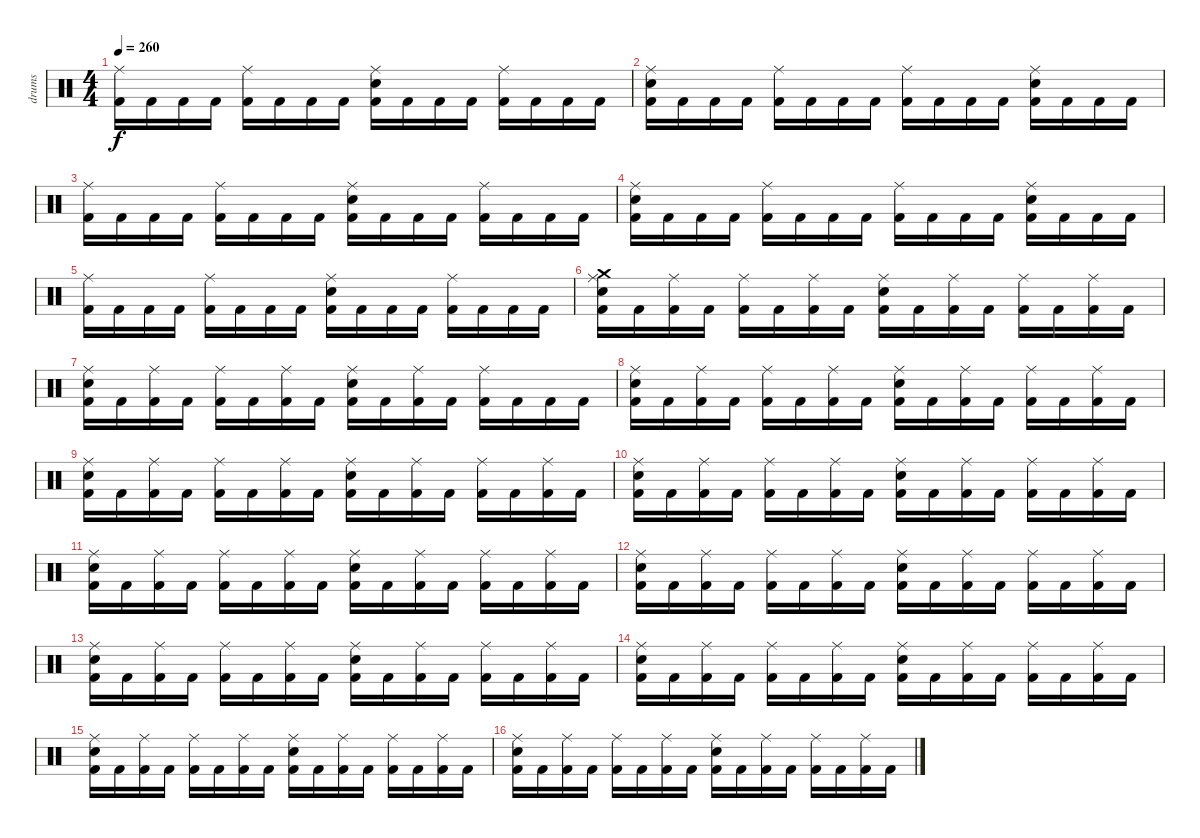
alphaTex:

\track ("drums" "drums") {instrument percussion}
\staff {score}
\articulation defaults
\ts (4 4)
\tempo 260
\clef neutral
\ks c
("Ride (middle)" "Kick (hit) 2").16{dy f} "Kick (hit) 2".16 "Kick (hit) 2".16 "Kick (hit) 2".16 ("Ride (middle)" "Kick (hit) 2").16 "Kick (hit) 2".16 "Kick (hit) 2".16 "Kick (hit) 2".16 ("Ride (middle)" "Electric Snare (hit)" "Kick (hit) 2").16 "Kick (hit) 2".16 "Kick (hit) 2".16 "Kick (hit) 2".16 ("Ride (middle)" "Kick (hit) 2").16 "Kick (hit) 2".16 "Kick (hit) 2".16 "Kick (hit) 2".16 |
("Ride (middle)" "Electric Snare (hit)" "Kick (hit) 2").16 "Kick (hit) 2".16 "Kick (hit) 2".16 "Kick (hit) 2".16 ("Ride (middle)" "Kick (hit) 2").16 "Kick (hit) 2".16 "Kick (hit) 2".16 "Kick (hit) 2".16 ("Ride (middle)" "Kick (hit) 2").16 "Kick (hit) 2".16 "Kick (hit) 2".16 "Kick (hit) 2".16 ("Ride (middle)" "Electric Snare (hit)" "Kick (hit) 2").16 "Kick (hit) 2".16 "Kick (hit) 2".16 "Kick (hit) 2".16 |
("Ride (middle)" "Kick (hit) 2").16 "Kick (hit) 2".16 "Kick (hit) 2".16 "Kick (hit) 2".16 ("Ride (middle)" "Kick (hit) 2").16 "Kick (hit) 2".16 "Kick (hit) 2".16 "Kick (hit) 2".16 ("Ride (middle)" "Electric Snare (hit)" "Kick (hit) 2").16 "Kick (hit) 2".16 "Kick (hit) 2".16 "Kick (hit) 2".16 ("Ride (middle)" "Kick (hit) 2").16 "Kick (hit) 2".16 "Kick (hit) 2".16 "Kick (hit) 2".16 |
("Ride (middle)" "Electric Snare (hit)" "Kick (hit) 2").16 "Kick (hit) 2".16 "Kick (hit) 2".16 "Kick (hit) 2".16 ("Ride (middle)" "Kick (hit) 2").16 "Kick (hit) 2".16 "Kick (hit) 2".16 "Kick (hit) 2".16 ("Ride (middle)" "Kick (hit) 2").16 "Kick (hit) 2".16 "Kick (hit) 2".16 "Kick (hit) 2".16 ("Ride (middle)" "Electric Snare (hit)" "Kick (hit) 2").16 "Kick (hit) 2".16 "Kick (hit) 2".16 "Kick (hit) 2".16 |
("Ride (middle)" "Kick (hit) 2").16 "Kick (hit) 2".16 "Kick (hit) 2".16 "Kick (hit) 2".16 ("Ride (middle)" "Kick (hit) 2").16 "Kick (hit) 2".16 "Kick (hit) 2".16 "Kick (hit) 2".16 ("Ride (middle)" "Electric Snare (hit)" "Kick (hit) 2").16 "Kick (hit) 2".16 "Kick (hit) 2".16 "Kick (hit) 2".16 ("Ride (middle)" "Kick (hit) 2").16 "Kick (hit) 2".16 "Kick (hit) 2".16 "Kick (hit) 2".16 |
("Crash medium (hit)" "Ride (middle)" "Electric Snare (hit)" "Kick (hit) 2").16 "Kick (hit) 2".16 ("Ride (middle)" "Kick (hit) 2").16 "Kick (hit) 2".16 ("Ride (middle)" "Kick (hit) 2").16 "Kick (hit) 2".16 ("Ride (middle)" "Kick (hit) 2").16 "Kick (hit) 2".16 ("Ride (middle)" "Electric Snare (hit)" "Kick (hit) 2").16 "Kick (hit) 2".16 ("Ride (middle)" "Kick (hit) 2").16 "Kick (hit) 2".16 ("Ride (middle)" "Kick (hit) 2").16 "Kick (hit) 2".16 ("Ride (middle)" "Kick (hit) 2").16 "Kick (hit) 2".16 |
("Ride (middle)" "Electric Snare (hit)" "Kick (hit) 2").16 "Kick (hit) 2".16 ("Ride (middle)" "Kick (hit) 2").16 "Kick (hit) 2".16 ("Ride (middle)" "Kick (hit) 2").16 "Kick (hit) 2".16 ("Ride (middle)" "Kick (hit) 2").16 "Kick (hit) 2".16 ("Ride (middle)" "Electric Snare (hit)" "Kick (hit) 2").16 "Kick (hit) 2".16 ("Ride (middle)" "Kick (hit) 2").16 "Kick (hit) 2".16 ("Ride (middle)" "Kick (hit) 2").16 "Kick (hit) 2".16 "Kick (hit) 2".16 "Kick (hit) 2".16 |
("Ride (middle)" "Electric Snare (hit)" "Kick (hit) 2").16 "Kick (hit) 2".16 ("Ride (middle)" "Kick (hit) 2").16 "Kick (hit) 2".16 ("Ride (middle)" "Kick (hit) 2").16 "Kick (hit) 2".16 ("Ride (middle)" "Kick (hit) 2").16 "Kick (hit) 2".16 ("Ride (middle)" "Electric Snare (hit)" "Kick (hit) 2").16 "Kick (hit) 2".16 ("Ride (middle)" "Kick (hit) 2").16 "Kick (hit) 2".16 ("Ride (middle)" "Kick (hit) 2").16 "Kick (hit) 2".16 ("Ride (middle)" "Kick (hit) 2").16 "Kick (hit) 2".16 |
("Ride (middle)" "Electric Snare (hit)" "Kick (hit) 2").16 "Kick (hit) 2".16 ("Ride (middle)" "Kick (hit) 2").16 "Kick (hit) 2".16 ("Ride (middle)" "Kick (hit) 2").16 "Kick (hit) 2".16 ("Ride (middle)" "Kick (hit) 2").16 "Kick (hit) 2".16 ("Ride (middle)" "Electric Snare (hit)" "Kick (hit) 2").16 "Kick (hit) 2".16 ("Ride (middle)" "Kick (hit) 2").16 "Kick (hit) 2".16 ("Ride (middle)" "Kick (hit) 2").16 "Kick (hit) 2".16 ("Ride (middle)" "Kick (hit) 2").16 "Kick (hit) 2".16 |
("Ride (middle)" "Electric Snare (hit)" "Kick (hit) 2").16 "Kick (hit) 2".16 ("Ride (middle)" "Kick (hit) 2").16 "Kick (hit) 2".16 ("Ride (middle)" "Kick (hit) 2").16 "Kick (hit) 2".16 ("Ride (middle)" "Kick (hit) 2").16 "Kick (hit) 2".16 ("Ride (middle)" "Electric Snare (hit)" "Kick (hit) 2").16 "Kick (hit) 2".16 ("Ride (middle)" "Kick (hit) 2").16 "Kick (hit) 2".16 ("Ride (middle)" "Kick (hit) 2").16 "Kick (hit) 2".16 ("Ride (middle)" "Kick (hit) 2").16 "Kick (hit) 2".16 |
("Ride (middle)" "Electric Snare (hit)" "Kick (hit) 2").16 "Kick (hit) 2".16 ("Ride (middle)" "Kick (hit) 2").16 "Kick (hit) 2".16 ("Ride (middle)" "Kick (hit) 2").16 "Kick (hit) 2".16 ("Ride (middle)" "Kick (hit) 2").16 "Kick (hit) 2".16 ("Ride (middle)" "Electric Snare (hit)" "Kick (hit) 2").16 "Kick (hit) 2".16 ("Ride (middle)" "Kick (hit) 2").16 "Kick (hit) 2".16 ("Ride (middle)" "Kick (hit) 2").16 "Kick (hit) 2".16 ("Ride (middle)" "Kick (hit) 2").16 "Kick (hit) 2".16 |
("Ride (middle)" "Electric Snare (hit)" "Kick (hit) 2").16 "Kick (hit) 2".16 ("Ride (middle)" "Kick (hit) 2").16 "Kick (hit) 2".16 ("Ride (middle)" "Kick (hit) 2").16 "Kick (hit) 2".16 ("Ride (middle)" "Kick (hit) 2").16 "Kick (hit) 2".16 ("Ride (middle)" "Electric Snare (hit)" "Kick (hit) 2").16 "Kick (hit) 2".16 ("Ride (middle)" "Kick (hit) 2").16 "Kick (hit) 2".16 ("Ride (middle)" "Kick (hit) 2").16 "Kick (hit) 2".16 ("Ride (middle)" "Kick (hit) 2").16 "Kick (hit) 2".16 |
("Ride (middle)" "Electric Snare (hit)" "Kick (hit) 2").16 "Kick (hit) 2".16 ("Ride (middle)" "Kick (hit) 2").16 "Kick (hit) 2".16 ("Ride (middle)" "Kick (hit) 2").16 "Kick (hit) 2".16 ("Ride (middle)" "Kick (hit) 2").16 "Kick (hit) 2".16 ("Ride (middle)" "Electric Snare (hit)" "Kick (hit) 2").16 "Kick (hit) 2".16 ("Ride (middle)" "Kick (hit) 2").16 "Kick (hit) 2".16 ("Ride (middle)" "Kick (hit) 2").16 "Kick (hit) 2".16 ("Ride (middle)" "Kick (hit) 2").16 "Kick (hit) 2".16 |
("Ride (middle)" "Electric Snare (hit)" "Kick (hit) 2").16 "Kick (hit) 2".16 ("Ride (middle)" "Kick (hit) 2").16 "Kick (hit) 2".16 ("Ride (middle)" "Kick (hit) 2").16 "Kick (hit) 2".16 ("Ride (middle)" "Kick (hit) 2").16 "Kick (hit) 2".16 ("Ride (middle)" "Electric Snare (hit)" "Kick (hit) 2").16 "Kick (hit) 2".16 ("Ride (middle)" "Kick (hit) 2").16 "Kick (hit) 2".16 ("Ride (middle)" "Kick (hit) 2").16 "Kick (hit) 2".16 ("Ride (middle)" "Kick (hit) 2").16 "Kick (hit) 2".16 |
("Ride (middle)" "Electric Snare (hit)" "Kick (hit) 2").16 "Kick (hit) 2".16 ("Ride (middle)" "Kick (hit) 2").16 "Kick (hit) 2".16 ("Ride (middle)" "Kick (hit) 2").16 "Kick (hit) 2".16 ("Ride (middle)" "Kick (hit) 2").16 "Kick (hit) 2".16 ("Ride (middle)" "Electric Snare (hit)" "Kick (hit) 2").16 "Kick (hit) 2".16 ("Ride (middle)" "Kick (hit) 2").16 "Kick (hit) 2".16 ("Ride (middle)" "Kick (hit) 2").16 "Kick (hit) 2".16 ("Ride (middle)" "Kick (hit) 2").16 "Kick (hit) 2".16 |
("Ride (middle)" "Electric Snare (hit)" "Kick (hit) 2").16 "Kick (hit) 2".16 ("Ride (middle)" "Kick (hit) 2").16 "Kick (hit) 2".16 ("Ride (middle)" "Kick (hit) 2").16 "Kick (hit) 2".16 ("Ride (middle)" "Kick (hit) 2").16 "Kick (hit) 2".16 ("Ride (middle)" "Electric Snare (hit)" "Kick (hit) 2").16 "Kick (hit) 2".16 ("Ride (middle)" "Kick (hit) 2").16 "Kick (hit) 2".16 ("Ride (middle)" "Kick (hit) 2").16 "Kick (hit) 2".16 ("Ride (middle)" "Kick (hit) 2").16 "Kick (hit) 2".16
